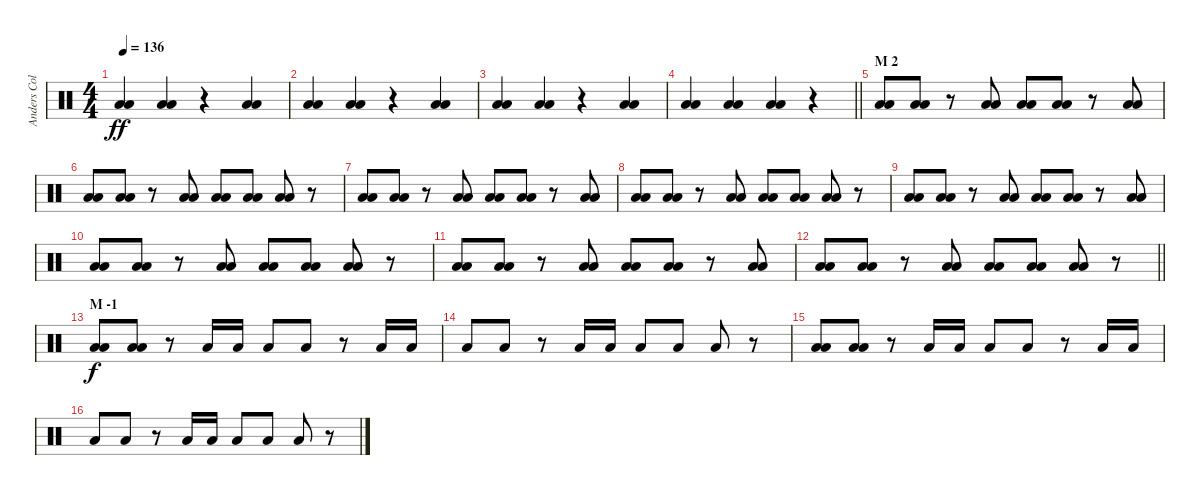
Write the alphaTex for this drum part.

\track ("Anders Colsefini" "Anders Col") {instrument percussion}
\staff {score}
\articulation defaults
\ts (4 4)
\tempo 136
\clef neutral
\ks c
("Low Floor Tom (hit)" "Low Floor Tom (hit)").4{dy ff} ("Low Floor Tom (hit)" "Low Floor Tom (hit)").4 r.4 ("Low Floor Tom (hit)" "Low Floor Tom (hit)").4 |
("Low Floor Tom (hit)" "Low Floor Tom (hit)").4 ("Low Floor Tom (hit)" "Low Floor Tom (hit)").4 r.4 ("Low Floor Tom (hit)" "Low Floor Tom (hit)").4 |
("Low Floor Tom (hit)" "Low Floor Tom (hit)").4 ("Low Floor Tom (hit)" "Low Floor Tom (hit)").4 r.4 ("Low Floor Tom (hit)" "Low Floor Tom (hit)").4 |
\barLineRight lightlight
("Low Floor Tom (hit)" "Low Floor Tom (hit)").4 ("Low Floor Tom (hit)" "Low Floor Tom (hit)").4 ("Low Floor Tom (hit)" "Low Floor Tom (hit)").4 r.4 |
\section ("" "M 2")
("Low Floor Tom (hit)" "Low Floor Tom (hit)").8 ("Low Floor Tom (hit)" "Low Floor Tom (hit)").8 r.8 ("Low Floor Tom (hit)" "Low Floor Tom (hit)").8 ("Low Floor Tom (hit)" "Low Floor Tom (hit)").8 ("Low Floor Tom (hit)" "Low Floor Tom (hit)").8 r.8 ("Low Floor Tom (hit)" "Low Floor Tom (hit)").8 |
("Low Floor Tom (hit)" "Low Floor Tom (hit)").8 ("Low Floor Tom (hit)" "Low Floor Tom (hit)").8 r.8 ("Low Floor Tom (hit)" "Low Floor Tom (hit)").8 ("Low Floor Tom (hit)" "Low Floor Tom (hit)").8 ("Low Floor Tom (hit)" "Low Floor Tom (hit)").8 ("Low Floor Tom (hit)" "Low Floor Tom (hit)").8 r.8 |
("Low Floor Tom (hit)" "Low Floor Tom (hit)").8 ("Low Floor Tom (hit)" "Low Floor Tom (hit)").8 r.8 ("Low Floor Tom (hit)" "Low Floor Tom (hit)").8 ("Low Floor Tom (hit)" "Low Floor Tom (hit)").8 ("Low Floor Tom (hit)" "Low Floor Tom (hit)").8 r.8 ("Low Floor Tom (hit)" "Low Floor Tom (hit)").8 |
("Low Floor Tom (hit)" "Low Floor Tom (hit)").8 ("Low Floor Tom (hit)" "Low Floor Tom (hit)").8 r.8 ("Low Floor Tom (hit)" "Low Floor Tom (hit)").8 ("Low Floor Tom (hit)" "Low Floor Tom (hit)").8 ("Low Floor Tom (hit)" "Low Floor Tom (hit)").8 ("Low Floor Tom (hit)" "Low Floor Tom (hit)").8 r.8 |
("Low Floor Tom (hit)" "Low Floor Tom (hit)").8 ("Low Floor Tom (hit)" "Low Floor Tom (hit)").8 r.8 ("Low Floor Tom (hit)" "Low Floor Tom (hit)").8 ("Low Floor Tom (hit)" "Low Floor Tom (hit)").8 ("Low Floor Tom (hit)" "Low Floor Tom (hit)").8 r.8 ("Low Floor Tom (hit)" "Low Floor Tom (hit)").8 |
("Low Floor Tom (hit)" "Low Floor Tom (hit)").8 ("Low Floor Tom (hit)" "Low Floor Tom (hit)").8 r.8 ("Low Floor Tom (hit)" "Low Floor Tom (hit)").8 ("Low Floor Tom (hit)" "Low Floor Tom (hit)").8 ("Low Floor Tom (hit)" "Low Floor Tom (hit)").8 ("Low Floor Tom (hit)" "Low Floor Tom (hit)").8 r.8 |
("Low Floor Tom (hit)" "Low Floor Tom (hit)").8 ("Low Floor Tom (hit)" "Low Floor Tom (hit)").8 r.8 ("Low Floor Tom (hit)" "Low Floor Tom (hit)").8 ("Low Floor Tom (hit)" "Low Floor Tom (hit)").8 ("Low Floor Tom (hit)" "Low Floor Tom (hit)").8 r.8 ("Low Floor Tom (hit)" "Low Floor Tom (hit)").8 |
\barLineRight lightlight
("Low Floor Tom (hit)" "Low Floor Tom (hit)").8 ("Low Floor Tom (hit)" "Low Floor Tom (hit)").8 r.8 ("Low Floor Tom (hit)" "Low Floor Tom (hit)").8 ("Low Floor Tom (hit)" "Low Floor Tom (hit)").8 ("Low Floor Tom (hit)" "Low Floor Tom (hit)").8 ("Low Floor Tom (hit)" "Low Floor Tom (hit)").8 r.8 |
\section ("" "M -1")
("Low Floor Tom (hit)" "Low Floor Tom (hit)").8{dy f} ("Low Floor Tom (hit)" "Low Floor Tom (hit)").8 r.8 "Low Floor Tom (hit)".16 "Low Floor Tom (hit)".16 "Low Floor Tom (hit)".8 "Low Floor Tom (hit)".8 r.8 "Low Floor Tom (hit)".16 "Low Floor Tom (hit)".16 |
"Low Floor Tom (hit)".8 "Low Floor Tom (hit)".8 r.8 "Low Floor Tom (hit)".16 "Low Floor Tom (hit)".16 "Low Floor Tom (hit)".8 "Low Floor Tom (hit)".8 "Low Floor Tom (hit)".8 r.8 |
("Low Floor Tom (hit)" "Low Floor Tom (hit)").8 ("Low Floor Tom (hit)" "Low Floor Tom (hit)").8 r.8 "Low Floor Tom (hit)".16 "Low Floor Tom (hit)".16 "Low Floor Tom (hit)".8 "Low Floor Tom (hit)".8 r.8 "Low Floor Tom (hit)".16 "Low Floor Tom (hit)".16 |
"Low Floor Tom (hit)".8 "Low Floor Tom (hit)".8 r.8 "Low Floor Tom (hit)".16 "Low Floor Tom (hit)".16 "Low Floor Tom (hit)".8 "Low Floor Tom (hit)".8 "Low Floor Tom (hit)".8 r.8
